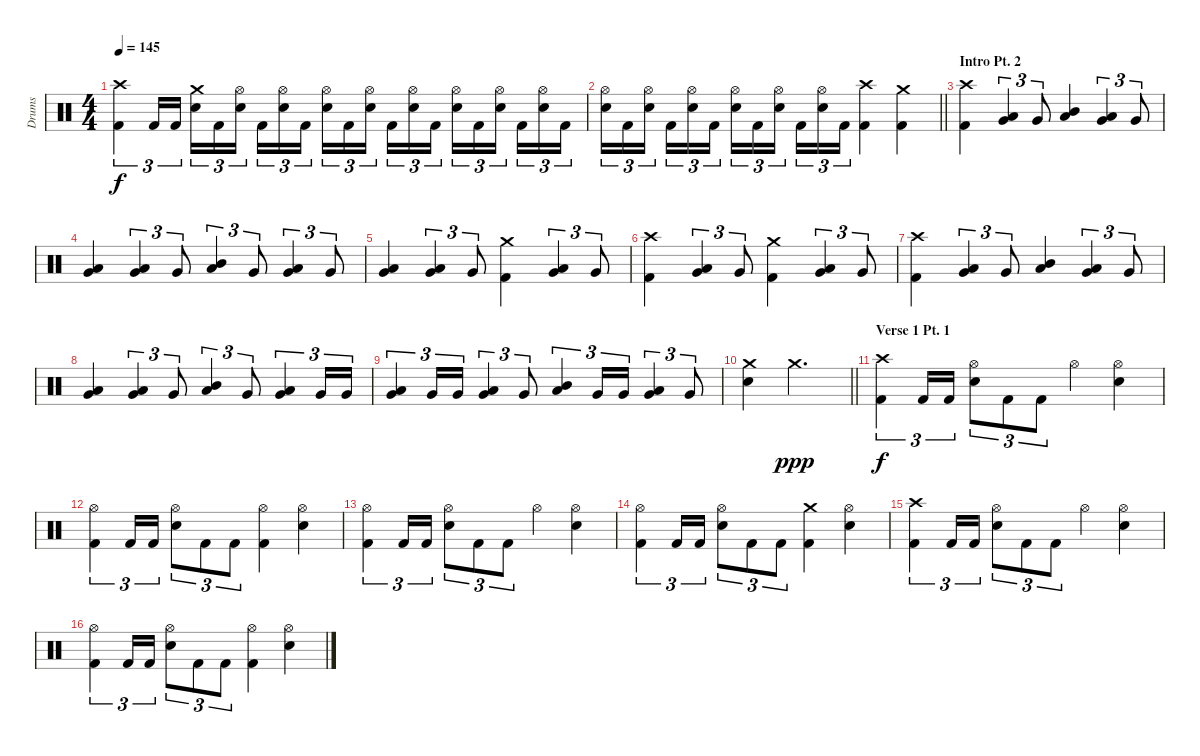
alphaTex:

\track ("Drums" "Drums") {instrument percussion}
\staff {score}
\articulation defaults
\ts (4 4)
\tempo 145
\clef neutral
\ks c
("Crash high (hit)" "Kick (hit) 2").4{tu (3 2) dy f} "Kick (hit) 2".16{tu (3 2)} "Kick (hit) 2".16{tu (3 2)} ("Crash medium (hit)" "Electric Snare (hit)").16{tu (3 2)} "Kick (hit) 2".16{tu (3 2)} ("Hi-Hat (open)" "Electric Snare (hit)").16{tu (3 2) beam splitsecondary} "Kick (hit) 2".16{tu (3 2)} ("Hi-Hat (open)" "Electric Snare (hit)").16{tu (3 2)} "Kick (hit) 2".16{tu (3 2)} ("Hi-Hat (open)" "Electric Snare (hit)").16{tu (3 2)} "Kick (hit) 2".16{tu (3 2)} ("Hi-Hat (open)" "Electric Snare (hit)").16{tu (3 2) beam splitsecondary} "Kick (hit) 2".16{tu (3 2)} ("Hi-Hat (open)" "Electric Snare (hit)").16{tu (3 2)} "Kick (hit) 2".16{tu (3 2)} ("Hi-Hat (open)" "Electric Snare (hit)").16{tu (3 2)} "Kick (hit) 2".16{tu (3 2)} ("Hi-Hat (open)" "Electric Snare (hit)").16{tu (3 2) beam splitsecondary} "Kick (hit) 2".16{tu (3 2)} ("Hi-Hat (open)" "Electric Snare (hit)").16{tu (3 2)} "Kick (hit) 2".16{tu (3 2)} |
\barLineRight lightlight
("Hi-Hat (open)" "Electric Snare (hit)").16{tu (3 2)} "Kick (hit) 2".16{tu (3 2)} ("Hi-Hat (open)" "Electric Snare (hit)").16{tu (3 2) beam splitsecondary} "Kick (hit) 2".16{tu (3 2)} ("Hi-Hat (open)" "Electric Snare (hit)").16{tu (3 2)} "Kick (hit) 2".16{tu (3 2)} ("Hi-Hat (open)" "Electric Snare (hit)").16{tu (3 2)} "Kick (hit) 2".16{tu (3 2)} ("Hi-Hat (open)" "Electric Snare (hit)").16{tu (3 2) beam splitsecondary} "Kick (hit) 2".16{tu (3 2)} ("Hi-Hat (open)" "Electric Snare (hit)").16{tu (3 2)} "Kick (hit) 2".16{tu (3 2)} ("Crash high (hit)" "Kick (hit) 2").4 ("Crash medium (hit)" "Kick (hit) 2").4 |
\section ("" "Intro Pt. 2")
("Crash high (hit)" "Kick (hit) 2").4 ("Low Tom (hit)" "Very Low Tom (hit)").4{tu (3 2)} "Very Low Tom (hit)".8{tu (3 2)} ("Mid Tom (hit)" "Low Tom (hit)").4 ("Low Tom (hit)" "Very Low Tom (hit)").4{tu (3 2)} "Very Low Tom (hit)".8{tu (3 2)} |
("Very Low Tom (hit)" "Low Floor Tom (hit)").4 ("Low Tom (hit)" "Very Low Tom (hit)").4{tu (3 2)} "Very Low Tom (hit)".8{tu (3 2)} ("Mid Tom (hit)" "Low Tom (hit)").4{tu (3 2)} "Very Low Tom (hit)".8{tu (3 2)} ("Low Tom (hit)" "Very Low Tom (hit)").4{tu (3 2)} "Very Low Tom (hit)".8{tu (3 2)} |
("Very Low Tom (hit)" "Low Floor Tom (hit)").4 ("Low Tom (hit)" "Very Low Tom (hit)").4{tu (3 2)} "Very Low Tom (hit)".8{tu (3 2)} ("Crash medium (hit)" "Kick (hit) 2").4 ("Low Tom (hit)" "Very Low Tom (hit)").4{tu (3 2)} "Very Low Tom (hit)".8{tu (3 2)} |
("Crash high (hit)" "Kick (hit) 2").4 ("Low Tom (hit)" "Very Low Tom (hit)").4{tu (3 2)} "Very Low Tom (hit)".8{tu (3 2)} ("Crash medium (hit)" "Kick (hit) 2").4 ("Low Tom (hit)" "Very Low Tom (hit)").4{tu (3 2)} "Very Low Tom (hit)".8{tu (3 2)} |
("Crash high (hit)" "Kick (hit) 2").4 ("Low Tom (hit)" "Very Low Tom (hit)").4{tu (3 2)} "Very Low Tom (hit)".8{tu (3 2)} ("Mid Tom (hit)" "Low Tom (hit)").4 ("Low Tom (hit)" "Very Low Tom (hit)").4{tu (3 2)} "Very Low Tom (hit)".8{tu (3 2)} |
("Very Low Tom (hit)" "Low Floor Tom (hit)").4 ("Low Tom (hit)" "Very Low Tom (hit)").4{tu (3 2)} "Very Low Tom (hit)".8{tu (3 2)} ("Mid Tom (hit)" "Low Tom (hit)").4{tu (3 2)} "Very Low Tom (hit)".8{tu (3 2)} ("Low Tom (hit)" "Very Low Tom (hit)").4{tu (3 2)} "Very Low Tom (hit)".16{tu (3 2)} "Very Low Tom (hit)".16{tu (3 2)} |
("Very Low Tom (hit)" "Low Floor Tom (hit)").4{tu (3 2)} "Very Low Tom (hit)".16{tu (3 2)} "Very Low Tom (hit)".16{tu (3 2)} ("Low Tom (hit)" "Very Low Tom (hit)").4{tu (3 2)} "Very Low Tom (hit)".8{tu (3 2)} ("Mid Tom (hit)" "Low Tom (hit)").4{tu (3 2)} "Very Low Tom (hit)".16{tu (3 2)} "Very Low Tom (hit)".16{tu (3 2)} ("Low Tom (hit)" "Very Low Tom (hit)").4{tu (3 2)} "Very Low Tom (hit)".8{tu (3 2)} |
\barLineRight lightlight
("Crash medium (hit)" "Electric Snare (hit)").4 "Crash medium (hit)".2{d dy ppp} |
\section ("" "Verse 1 Pt. 1")
("Crash high (hit)" "Kick (hit) 2").4{tu (3 2) dy f} "Kick (hit) 2".16{tu (3 2)} "Kick (hit) 2".16{tu (3 2)} ("Hi-Hat (open)" "Electric Snare (hit)").8{tu (3 2)} "Kick (hit) 2".8{tu (3 2)} "Kick (hit) 2".8{tu (3 2)} "Hi-Hat (open)".4 ("Hi-Hat (open)" "Electric Snare (hit)").4 |
("Hi-Hat (open)" "Kick (hit) 2").4{tu (3 2)} "Kick (hit) 2".16{tu (3 2)} "Kick (hit) 2".16{tu (3 2)} ("Hi-Hat (open)" "Electric Snare (hit)").8{tu (3 2)} "Kick (hit) 2".8{tu (3 2)} "Kick (hit) 2".8{tu (3 2)} ("Hi-Hat (open)" "Kick (hit) 2").4 ("Hi-Hat (open)" "Electric Snare (hit)").4 |
("Hi-Hat (open)" "Kick (hit) 2").4{tu (3 2)} "Kick (hit) 2".16{tu (3 2)} "Kick (hit) 2".16{tu (3 2)} ("Hi-Hat (open)" "Electric Snare (hit)").8{tu (3 2)} "Kick (hit) 2".8{tu (3 2)} "Kick (hit) 2".8{tu (3 2)} "Hi-Hat (open)".4 ("Hi-Hat (open)" "Electric Snare (hit)").4 |
("Hi-Hat (open)" "Kick (hit) 2").4{tu (3 2)} "Kick (hit) 2".16{tu (3 2)} "Kick (hit) 2".16{tu (3 2)} ("Hi-Hat (open)" "Electric Snare (hit)").8{tu (3 2)} "Kick (hit) 2".8{tu (3 2)} "Kick (hit) 2".8{tu (3 2)} ("Crash medium (hit)" "Kick (hit) 2").4 ("Hi-Hat (open)" "Electric Snare (hit)").4 |
("Crash high (hit)" "Kick (hit) 2").4{tu (3 2)} "Kick (hit) 2".16{tu (3 2)} "Kick (hit) 2".16{tu (3 2)} ("Hi-Hat (open)" "Electric Snare (hit)").8{tu (3 2)} "Kick (hit) 2".8{tu (3 2)} "Kick (hit) 2".8{tu (3 2)} "Hi-Hat (open)".4 ("Hi-Hat (open)" "Electric Snare (hit)").4 |
("Hi-Hat (open)" "Kick (hit) 2").4{tu (3 2)} "Kick (hit) 2".16{tu (3 2)} "Kick (hit) 2".16{tu (3 2)} ("Hi-Hat (open)" "Electric Snare (hit)").8{tu (3 2)} "Kick (hit) 2".8{tu (3 2)} "Kick (hit) 2".8{tu (3 2)} ("Hi-Hat (open)" "Kick (hit) 2").4 ("Hi-Hat (open)" "Electric Snare (hit)").4
